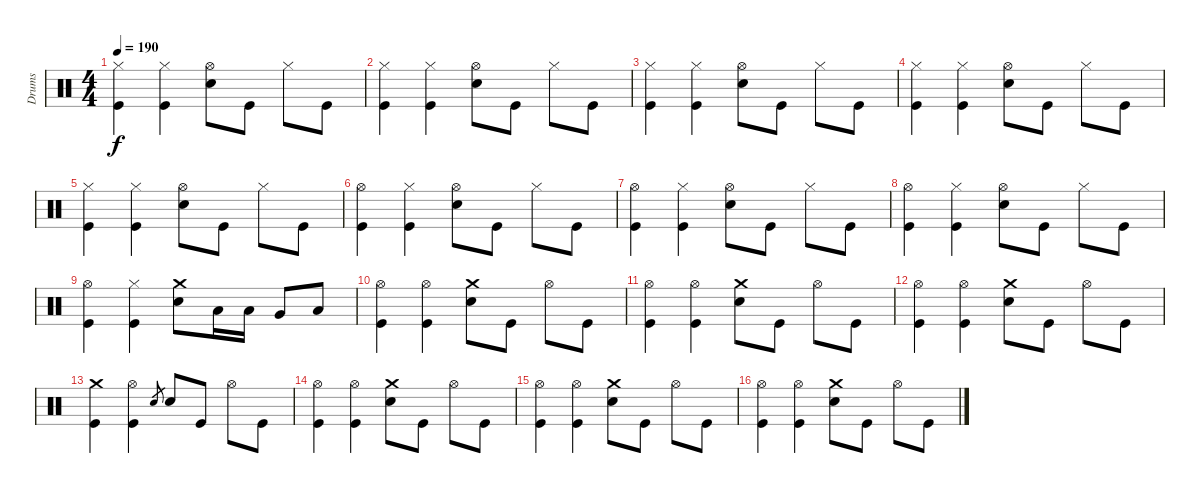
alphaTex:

\track ("Drums" "Drums") {instrument percussion}
\staff {score}
\articulation defaults
\ts (4 4)
\tempo 190
\clef neutral
\ks c
("Hi-Hat (closed)" "Kick (hit)").4{dy f} ("Hi-Hat (closed)" "Kick (hit)").4 ("Hi-Hat (open)" "Electric Snare (hit)").8 "Kick (hit)".8 "Hi-Hat (closed)".8 "Kick (hit)".8 |
("Hi-Hat (closed)" "Kick (hit)").4 ("Hi-Hat (closed)" "Kick (hit)").4 ("Hi-Hat (open)" "Electric Snare (hit)").8 "Kick (hit)".8 "Hi-Hat (closed)".8 "Kick (hit)".8 |
("Hi-Hat (closed)" "Kick (hit)").4 ("Hi-Hat (closed)" "Kick (hit)").4 ("Hi-Hat (open)" "Electric Snare (hit)").8 "Kick (hit)".8 "Hi-Hat (closed)".8 "Kick (hit)".8 |
("Hi-Hat (closed)" "Kick (hit)").4 ("Hi-Hat (closed)" "Kick (hit)").4 ("Hi-Hat (open)" "Electric Snare (hit)").8 "Kick (hit)".8 "Hi-Hat (closed)".8 "Kick (hit)".8 |
("Hi-Hat (closed)" "Kick (hit)").4 ("Hi-Hat (closed)" "Kick (hit)").4 ("Hi-Hat (open)" "Electric Snare (hit)").8 "Kick (hit)".8 "Hi-Hat (closed)".8 "Kick (hit)".8 |
("Hi-Hat (open)" "Kick (hit)").4 ("Hi-Hat (closed)" "Kick (hit)").4 ("Hi-Hat (open)" "Electric Snare (hit)").8 "Kick (hit)".8 "Hi-Hat (closed)".8 "Kick (hit)".8 |
("Hi-Hat (open)" "Kick (hit)").4 ("Hi-Hat (closed)" "Kick (hit)").4 ("Hi-Hat (open)" "Electric Snare (hit)").8 "Kick (hit)".8 "Hi-Hat (closed)".8 "Kick (hit)".8 |
("Hi-Hat (open)" "Kick (hit)").4 ("Hi-Hat (closed)" "Kick (hit)").4 ("Hi-Hat (open)" "Electric Snare (hit)").8 "Kick (hit)".8 "Hi-Hat (closed)".8 "Kick (hit)".8 |
("Hi-Hat (open)" "Kick (hit)").4 ("Hi-Hat (closed)" "Kick (hit)").4 ("Crash medium (hit)" "Electric Snare (hit)").8 "Low Tom (hit)".16 "Low Tom (hit)".16 "Very Low Tom (hit)".8 "Low Floor Tom (hit)".8 |
("Hi-Hat (open)" "Kick (hit)").4 ("Hi-Hat (open)" "Kick (hit)").4 ("Crash medium (hit)" "Electric Snare (hit)").8 "Kick (hit)".8 "Hi-Hat (open)".8 "Kick (hit)".8 |
("Hi-Hat (open)" "Kick (hit)").4 ("Hi-Hat (open)" "Kick (hit)").4 ("Crash medium (hit)" "Electric Snare (hit)").8 "Kick (hit)".8 "Hi-Hat (open)".8 "Kick (hit)".8 |
("Hi-Hat (open)" "Kick (hit)").4 ("Hi-Hat (open)" "Kick (hit)").4 ("Crash medium (hit)" "Electric Snare (hit)").8 "Kick (hit)".8 "Hi-Hat (open)".8 "Kick (hit)".8 |
("Crash medium (hit)" "Kick (hit)").4 ("Hi-Hat (open)" "Kick (hit)").4 "Electric Snare (hit)".8{gr} "Electric Snare (hit)".8 "Kick (hit)".8 "Hi-Hat (open)".8 "Kick (hit)".8 |
("Hi-Hat (open)" "Kick (hit)").4 ("Hi-Hat (open)" "Kick (hit)").4 ("Crash medium (hit)" "Electric Snare (hit)").8 "Kick (hit)".8 "Hi-Hat (open)".8 "Kick (hit)".8 |
("Hi-Hat (open)" "Kick (hit)").4 ("Hi-Hat (open)" "Kick (hit)").4 ("Crash medium (hit)" "Electric Snare (hit)").8 "Kick (hit)".8 "Hi-Hat (open)".8 "Kick (hit)".8 |
("Hi-Hat (open)" "Kick (hit)").4 ("Hi-Hat (open)" "Kick (hit)").4 ("Crash medium (hit)" "Electric Snare (hit)").8 "Kick (hit)".8 "Hi-Hat (open)".8 "Kick (hit)".8
